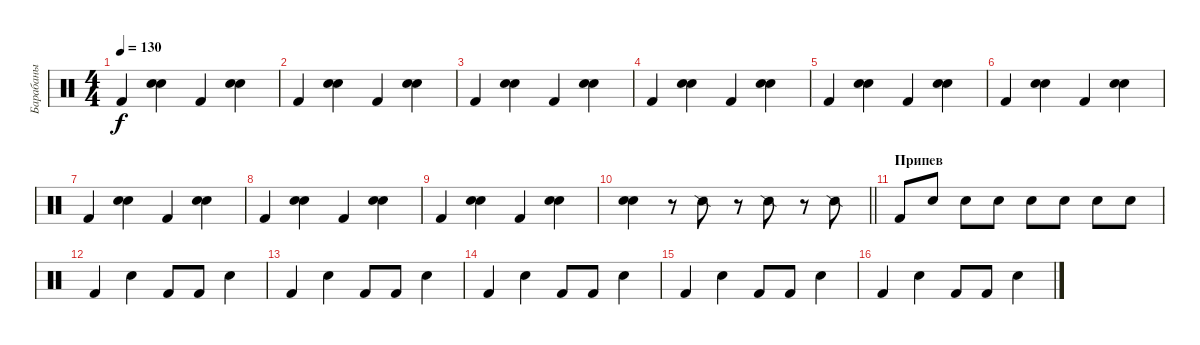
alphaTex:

\track ("Барабаны" "Барабаны") {instrument percussion}
\staff {score}
\articulation defaults
\ts (4 4)
\tempo 130
\clef neutral
\ks c "Kick (hit) 2".4{dy f}
("Snare (hit) 2" "Electric Snare (hit)").4 "Kick (hit) 2".4 ("Snare (hit) 2" "Electric Snare (hit)").4 |
"Kick (hit) 2".4 ("Snare (hit) 2" "Electric Snare (hit)").4 "Kick (hit) 2".4 ("Snare (hit) 2" "Electric Snare (hit)").4 |
"Kick (hit) 2".4 ("Snare (hit) 2" "Electric Snare (hit)").4 "Kick (hit) 2".4 ("Snare (hit) 2" "Electric Snare (hit)").4 |
"Kick (hit) 2".4 ("Snare (hit) 2" "Electric Snare (hit)").4 "Kick (hit) 2".4 ("Snare (hit) 2" "Electric Snare (hit)").4 |
"Kick (hit) 2".4 ("Snare (hit) 2" "Electric Snare (hit)").4 "Kick (hit) 2".4 ("Snare (hit) 2" "Electric Snare (hit)").4 |
"Kick (hit) 2".4 ("Snare (hit) 2" "Electric Snare (hit)").4 "Kick (hit) 2".4 ("Snare (hit) 2" "Electric Snare (hit)").4 |
"Kick (hit) 2".4 ("Snare (hit) 2" "Electric Snare (hit)").4 "Kick (hit) 2".4 ("Snare (hit) 2" "Electric Snare (hit)").4 |
"Kick (hit) 2".4 ("Snare (hit) 2" "Electric Snare (hit)").4 "Kick (hit) 2".4 ("Snare (hit) 2" "Electric Snare (hit)").4 |
"Kick (hit) 2".4 ("Snare (hit) 2" "Electric Snare (hit)").4 "Kick (hit) 2".4 ("Snare (hit) 2" "Electric Snare (hit)").4 |
\barLineRight lightlight
("Snare (hit) 2" "Electric Snare (hit)").4 r.8 "Snare (side stick) 2".8 r.8 "Snare (side stick) 2".8 r.8 "Snare (side stick) 2".8 |
\section ("" "Припев")
"Kick (hit) 2".8 "Snare (hit) 2".8 "Snare (hit) 2".8 "Snare (hit) 2".8 "Snare (hit) 2".8 "Snare (hit) 2".8 "Snare (hit) 2".8 "Snare (hit) 2".8 |
"Kick (hit) 2".4 "Snare (hit) 2".4 "Kick (hit) 2".8 "Kick (hit) 2".8 "Snare (hit) 2".4 |
"Kick (hit) 2".4 "Snare (hit) 2".4 "Kick (hit) 2".8 "Kick (hit) 2".8 "Snare (hit) 2".4 |
"Kick (hit) 2".4 "Snare (hit) 2".4 "Kick (hit) 2".8 "Kick (hit) 2".8 "Snare (hit) 2".4 |
"Kick (hit) 2".4 "Snare (hit) 2".4 "Kick (hit) 2".8 "Kick (hit) 2".8 "Snare (hit) 2".4 |
"Kick (hit) 2".4 "Snare (hit) 2".4 "Kick (hit) 2".8 "Kick (hit) 2".8 "Snare (hit) 2".4
